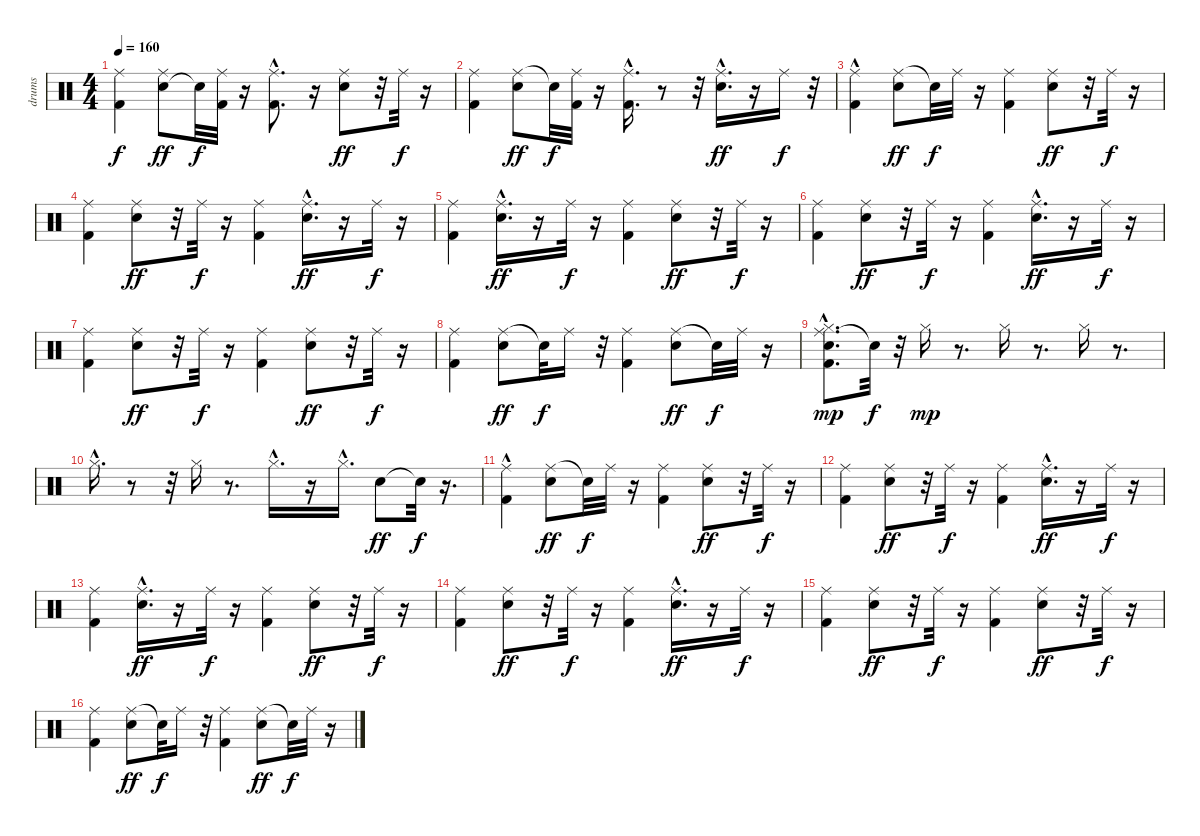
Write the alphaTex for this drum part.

\track ("drums" "drums") {instrument percussion}
\staff {score}
\articulation defaults
\ts (4 4)
\tempo 160
\clef neutral
\ks c
("Ride (middle)" "Kick (hit) 2").4{dy f} ("Snare (hit) 2" "Ride (middle)").8{dy ff} "Snare (hit)"{t}.32{dy f} ("Ride (middle)" "Kick (hit) 2").32 r.16 ("Ride (middle)" "Kick (hit) 2"{hac}).8{d} r.16 ("Ride (middle)" "Snare (hit) 2").8{dy ff} r.32 "Ride (middle)".32{dy f} r.16 |
("Ride (middle)" "Kick (hit) 2").4 ("Ride (middle)" "Snare (hit) 2").8{dy ff} "Snare (hit)"{t}.32{dy f} ("Ride (middle)" "Kick (hit) 2").32 r.16 ("Ride (middle)" "Kick (hit) 2"{hac}).16{d} r.8 r.32 ("Ride (middle)" "Snare (hit) 2"{hac}).16{d dy ff} r.16 "Ride (middle)".16{dy f} r.32 |
("Ride (middle)"{hac} "Kick (hit) 2").4 ("Ride (middle)" "Snare (hit) 2").8{dy ff} "Snare (hit)"{t}.32{dy f} "Ride (middle)".32 r.16 ("Ride (middle)" "Kick (hit) 2").4 ("Snare (hit) 2" "Ride (middle)").8{dy ff} r.32 "Ride (middle)".32{dy f} r.16 |
("Ride (middle)" "Kick (hit) 2").4 ("Ride (middle)" "Snare (hit) 2").8{dy ff} r.32 "Ride (middle)".32{dy f} r.16 ("Ride (middle)" "Kick (hit) 2").4 ("Ride (middle)" "Snare (hit) 2"{hac}).16{d dy ff} r.16 "Ride (middle)".32{dy f} r.16 |
("Ride (middle)" "Kick (hit) 2").4 ("Ride (middle)" "Snare (hit) 2"{hac}).16{d dy ff} r.16 "Ride (middle)".32{dy f} r.16 ("Ride (middle)" "Kick (hit) 2").4 ("Snare (hit) 2" "Ride (middle)").8{dy ff} r.32 "Ride (middle)".32{dy f} r.16 |
("Ride (middle)" "Kick (hit) 2").4 ("Ride (middle)" "Snare (hit) 2").8{dy ff} r.32 "Ride (middle)".32{dy f} r.16 ("Ride (middle)" "Kick (hit) 2").4 ("Ride (middle)" "Snare (hit) 2"{hac}).16{d dy ff} r.16 "Ride (middle)".32{dy f} r.16 |
("Ride (middle)" "Kick (hit) 2").4 ("Snare (hit) 2" "Ride (middle)").8{dy ff} r.32 "Ride (middle)".32{dy f} r.16 ("Ride (middle)" "Kick (hit) 2").4 ("Ride (middle)" "Snare (hit) 2").8{dy ff} r.32 "Ride (middle)".32{dy f} r.16 |
("Ride (middle)" "Kick (hit) 2").4 ("Ride (middle)" "Snare (hit) 2").8{dy ff} "Snare (hit)"{t}.32{dy f} "Ride (middle)".16 r.32 ("Ride (middle)" "Kick (hit) 2").4 ("Ride (middle)" "Snare (hit) 2").8{dy ff} "Snare (hit)"{t}.32{dy f} "Ride (middle)".32 r.16 |
("Ride (middle)" "Kick (hit) 2"{hac} "Snare (hit) 2"{hac} "Hi-Hat (closed)").8{d dy mp} "Snare (hit)"{t}.32{dy f} r.32 "Hi-Hat (closed)".16{dy mp} r.8{d} "Hi-Hat (closed)".16 r.8{d} "Hi-Hat (closed)".16 r.8{d} |
"Hi-Hat (closed)"{hac}.16{d} r.8 r.32 "Hi-Hat (closed)".16 r.8{d} "Hi-Hat (closed)"{hac}.16{d} r.16 "Hi-Hat (closed)"{hac}.16{d} "Snare (hit) 2".8{dy ff} "Snare (hit)"{t}.32{dy f} r.16{d} |
("Ride (middle)"{hac} "Kick (hit) 2").4 ("Ride (middle)" "Snare (hit) 2").8{dy ff} "Snare (hit)"{t}.32{dy f} "Ride (middle)".32 r.16 ("Ride (middle)" "Kick (hit) 2").4 ("Snare (hit) 2" "Ride (middle)").8{dy ff} r.32 "Ride (middle)".32{dy f} r.16 |
("Ride (middle)" "Kick (hit) 2").4 ("Ride (middle)" "Snare (hit) 2").8{dy ff} r.32 "Ride (middle)".32{dy f} r.16 ("Ride (middle)" "Kick (hit) 2").4 ("Ride (middle)" "Snare (hit) 2"{hac}).16{d dy ff} r.16 "Ride (middle)".32{dy f} r.16 |
("Ride (middle)" "Kick (hit) 2").4 ("Ride (middle)" "Snare (hit) 2"{hac}).16{d dy ff} r.16 "Ride (middle)".32{dy f} r.16 ("Ride (middle)" "Kick (hit) 2").4 ("Snare (hit) 2" "Ride (middle)").8{dy ff} r.32 "Ride (middle)".32{dy f} r.16 |
("Ride (middle)" "Kick (hit) 2").4 ("Ride (middle)" "Snare (hit) 2").8{dy ff} r.32 "Ride (middle)".32{dy f} r.16 ("Ride (middle)" "Kick (hit) 2").4 ("Ride (middle)" "Snare (hit) 2"{hac}).16{d dy ff} r.16 "Ride (middle)".32{dy f} r.16 |
("Ride (middle)" "Kick (hit) 2").4 ("Snare (hit) 2" "Ride (middle)").8{dy ff} r.32 "Ride (middle)".32{dy f} r.16 ("Ride (middle)" "Kick (hit) 2").4 ("Ride (middle)" "Snare (hit) 2").8{dy ff} r.32 "Ride (middle)".32{dy f} r.16 |
("Ride (middle)" "Kick (hit) 2").4 ("Ride (middle)" "Snare (hit) 2").8{dy ff} "Snare (hit)"{t}.32{dy f} "Ride (middle)".16 r.32 ("Ride (middle)" "Kick (hit) 2").4 ("Ride (middle)" "Snare (hit) 2").8{dy ff} "Snare (hit)"{t}.32{dy f} "Ride (middle)".32 r.16
